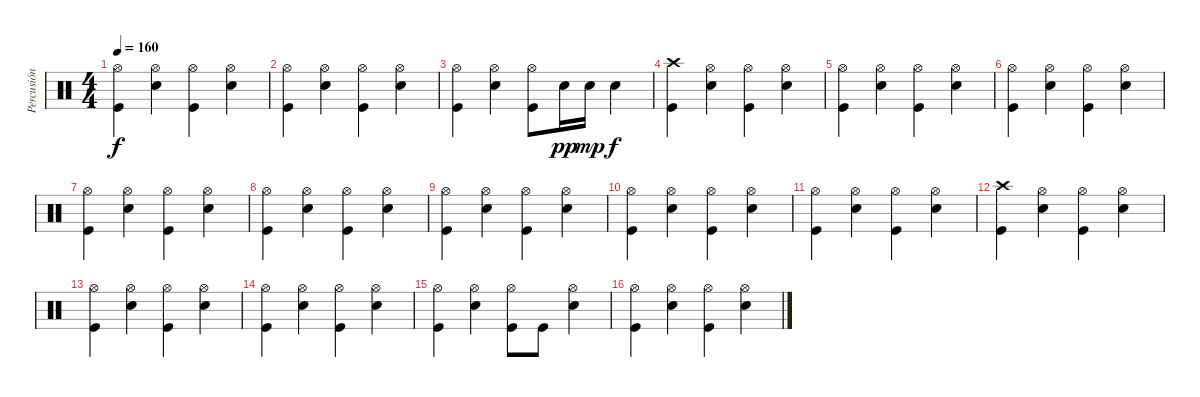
\track ("Percusión" "Percusión") {instrument percussion}
\staff {score}
\articulation defaults
\ts (4 4)
\tempo 160
\clef neutral
\ks c
("Kick (hit)" "Hi-Hat (open)").4{dy f} ("Snare (hit) 2" "Hi-Hat (open)").4 ("Kick (hit)" "Hi-Hat (open)").4 ("Snare (hit) 2" "Hi-Hat (open)").4 |
("Kick (hit)" "Hi-Hat (open)").4 ("Snare (hit) 2" "Hi-Hat (open)").4 ("Kick (hit)" "Hi-Hat (open)").4 ("Snare (hit) 2" "Hi-Hat (open)").4 |
("Kick (hit)" "Hi-Hat (open)").4 ("Snare (hit) 2" "Hi-Hat (open)").4 ("Kick (hit)" "Hi-Hat (open)").8 "Snare (hit) 2".16{dy pp} "Snare (hit) 2".16{dy mp} "Snare (hit) 2".4{dy f} |
("Kick (hit)" "Crash high (hit)").4 ("Snare (hit) 2" "Hi-Hat (open)").4 ("Kick (hit)" "Hi-Hat (open)").4 ("Snare (hit) 2" "Hi-Hat (open)").4 |
("Kick (hit)" "Hi-Hat (open)").4 ("Snare (hit) 2" "Hi-Hat (open)").4 ("Kick (hit)" "Hi-Hat (open)").4 ("Snare (hit) 2" "Hi-Hat (open)").4 |
("Kick (hit)" "Hi-Hat (open)").4 ("Snare (hit) 2" "Hi-Hat (open)").4 ("Kick (hit)" "Hi-Hat (open)").4 ("Snare (hit) 2" "Hi-Hat (open)").4 |
("Kick (hit)" "Hi-Hat (open)").4 ("Snare (hit) 2" "Hi-Hat (open)").4 ("Kick (hit)" "Hi-Hat (open)").4 ("Snare (hit) 2" "Hi-Hat (open)").4 |
("Kick (hit)" "Hi-Hat (open)").4 ("Snare (hit) 2" "Hi-Hat (open)").4 ("Kick (hit)" "Hi-Hat (open)").4 ("Snare (hit) 2" "Hi-Hat (open)").4 |
("Kick (hit)" "Hi-Hat (open)").4 ("Snare (hit) 2" "Hi-Hat (open)").4 ("Kick (hit)" "Hi-Hat (open)").4 ("Snare (hit) 2" "Hi-Hat (open)").4 |
("Kick (hit)" "Hi-Hat (open)").4 ("Snare (hit) 2" "Hi-Hat (open)").4 ("Kick (hit)" "Hi-Hat (open)").4 ("Snare (hit) 2" "Hi-Hat (open)").4 |
("Kick (hit)" "Hi-Hat (open)").4 ("Snare (hit) 2" "Hi-Hat (open)").4 ("Kick (hit)" "Hi-Hat (open)").4 ("Snare (hit) 2" "Hi-Hat (open)").4 |
("Kick (hit)" "Crash high (hit)").4 ("Snare (hit) 2" "Hi-Hat (open)").4 ("Kick (hit)" "Hi-Hat (open)").4 ("Snare (hit) 2" "Hi-Hat (open)").4 |
("Kick (hit)" "Hi-Hat (open)").4 ("Snare (hit) 2" "Hi-Hat (open)").4 ("Kick (hit)" "Hi-Hat (open)").4 ("Snare (hit) 2" "Hi-Hat (open)").4 |
("Kick (hit)" "Hi-Hat (open)").4 ("Snare (hit) 2" "Hi-Hat (open)").4 ("Kick (hit)" "Hi-Hat (open)").4 ("Snare (hit) 2" "Hi-Hat (open)").4 |
("Kick (hit)" "Hi-Hat (open)").4 ("Snare (hit) 2" "Hi-Hat (open)").4 ("Kick (hit)" "Hi-Hat (open)").8 "Kick (hit)".8 ("Snare (hit) 2" "Hi-Hat (open)").4 |
("Kick (hit)" "Hi-Hat (open)").4 ("Snare (hit) 2" "Hi-Hat (open)").4 ("Kick (hit)" "Hi-Hat (open)").4 ("Snare (hit) 2" "Hi-Hat (open)").4
